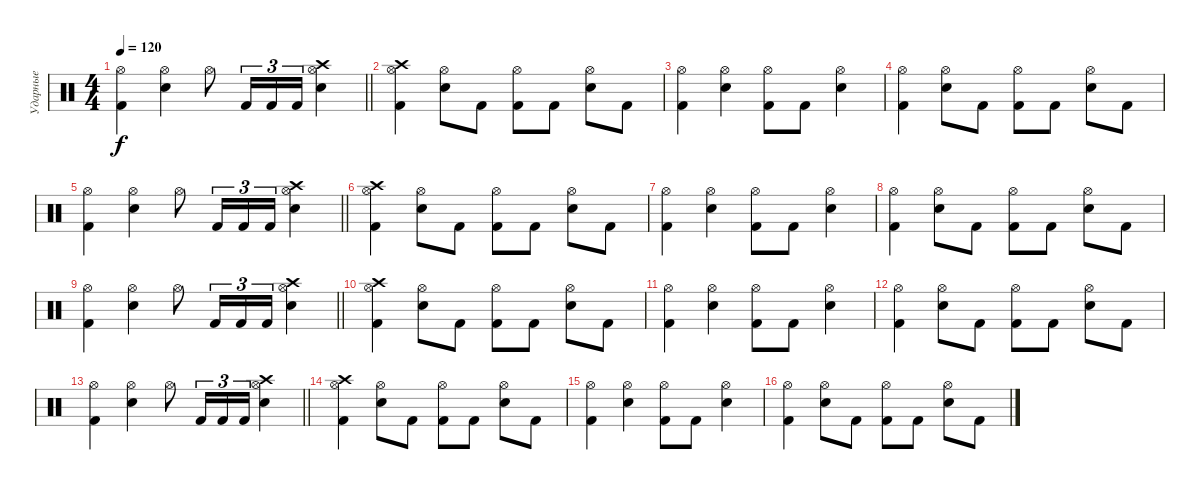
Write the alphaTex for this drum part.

\track ("Ударные" "Ударные") {instrument percussion}
\staff {score}
\articulation defaults
\ts (4 4)
\tempo 120
\clef neutral
\barLineRight lightlight
\ks c
("Kick (hit) 2" "Hi-Hat (open)").4{dy f} ("Snare (hit) 2" "Hi-Hat (open)").4 "Hi-Hat (open)".8 "Kick (hit) 2".16{tu (3 2)} "Kick (hit) 2".16{tu (3 2)} "Kick (hit) 2".16{tu (3 2)} ("Snare (hit) 2" "Hi-Hat (open)" "Crash high (hit)").4 |
("Kick (hit) 2" "Hi-Hat (open)" "Crash high (hit)").4 ("Snare (hit) 2" "Hi-Hat (open)").8 "Kick (hit) 2".8 ("Kick (hit) 2" "Hi-Hat (open)").8 "Kick (hit) 2".8 ("Snare (hit) 2" "Hi-Hat (open)").8 "Kick (hit) 2".8 |
("Kick (hit) 2" "Hi-Hat (open)").4 ("Snare (hit) 2" "Hi-Hat (open)").4 ("Kick (hit) 2" "Hi-Hat (open)").8 "Kick (hit) 2".8 ("Snare (hit) 2" "Hi-Hat (open)").4 |
("Kick (hit) 2" "Hi-Hat (open)").4 ("Snare (hit) 2" "Hi-Hat (open)").8 "Kick (hit) 2".8 ("Kick (hit) 2" "Hi-Hat (open)").8 "Kick (hit) 2".8 ("Snare (hit) 2" "Hi-Hat (open)").8 "Kick (hit) 2".8 |
\barLineRight lightlight
("Kick (hit) 2" "Hi-Hat (open)").4 ("Snare (hit) 2" "Hi-Hat (open)").4 "Hi-Hat (open)".8 "Kick (hit) 2".16{tu (3 2)} "Kick (hit) 2".16{tu (3 2)} "Kick (hit) 2".16{tu (3 2)} ("Snare (hit) 2" "Hi-Hat (open)" "Crash high (hit)").4 |
("Kick (hit) 2" "Hi-Hat (open)" "Crash high (hit)").4 ("Snare (hit) 2" "Hi-Hat (open)").8 "Kick (hit) 2".8 ("Kick (hit) 2" "Hi-Hat (open)").8 "Kick (hit) 2".8 ("Snare (hit) 2" "Hi-Hat (open)").8 "Kick (hit) 2".8 |
("Kick (hit) 2" "Hi-Hat (open)").4 ("Snare (hit) 2" "Hi-Hat (open)").4 ("Kick (hit) 2" "Hi-Hat (open)").8 "Kick (hit) 2".8 ("Snare (hit) 2" "Hi-Hat (open)").4 |
("Kick (hit) 2" "Hi-Hat (open)").4 ("Snare (hit) 2" "Hi-Hat (open)").8 "Kick (hit) 2".8 ("Kick (hit) 2" "Hi-Hat (open)").8 "Kick (hit) 2".8 ("Snare (hit) 2" "Hi-Hat (open)").8 "Kick (hit) 2".8 |
\barLineRight lightlight
("Kick (hit) 2" "Hi-Hat (open)").4 ("Snare (hit) 2" "Hi-Hat (open)").4 "Hi-Hat (open)".8 "Kick (hit) 2".16{tu (3 2)} "Kick (hit) 2".16{tu (3 2)} "Kick (hit) 2".16{tu (3 2)} ("Snare (hit) 2" "Hi-Hat (open)" "Crash high (hit)").4 |
("Kick (hit) 2" "Hi-Hat (open)" "Crash high (hit)").4 ("Snare (hit) 2" "Hi-Hat (open)").8 "Kick (hit) 2".8 ("Kick (hit) 2" "Hi-Hat (open)").8 "Kick (hit) 2".8 ("Snare (hit) 2" "Hi-Hat (open)").8 "Kick (hit) 2".8 |
("Kick (hit) 2" "Hi-Hat (open)").4 ("Snare (hit) 2" "Hi-Hat (open)").4 ("Kick (hit) 2" "Hi-Hat (open)").8 "Kick (hit) 2".8 ("Snare (hit) 2" "Hi-Hat (open)").4 |
("Kick (hit) 2" "Hi-Hat (open)").4 ("Snare (hit) 2" "Hi-Hat (open)").8 "Kick (hit) 2".8 ("Kick (hit) 2" "Hi-Hat (open)").8 "Kick (hit) 2".8 ("Snare (hit) 2" "Hi-Hat (open)").8 "Kick (hit) 2".8 |
\barLineRight lightlight
("Kick (hit) 2" "Hi-Hat (open)").4 ("Snare (hit) 2" "Hi-Hat (open)").4 "Hi-Hat (open)".8 "Kick (hit) 2".16{tu (3 2)} "Kick (hit) 2".16{tu (3 2)} "Kick (hit) 2".16{tu (3 2)} ("Snare (hit) 2" "Hi-Hat (open)" "Crash high (hit)").4 |
("Kick (hit) 2" "Hi-Hat (open)" "Crash high (hit)").4 ("Snare (hit) 2" "Hi-Hat (open)").8 "Kick (hit) 2".8 ("Kick (hit) 2" "Hi-Hat (open)").8 "Kick (hit) 2".8 ("Snare (hit) 2" "Hi-Hat (open)").8 "Kick (hit) 2".8 |
("Kick (hit) 2" "Hi-Hat (open)").4 ("Snare (hit) 2" "Hi-Hat (open)").4 ("Kick (hit) 2" "Hi-Hat (open)").8 "Kick (hit) 2".8 ("Snare (hit) 2" "Hi-Hat (open)").4 |
("Kick (hit) 2" "Hi-Hat (open)").4 ("Snare (hit) 2" "Hi-Hat (open)").8 "Kick (hit) 2".8 ("Kick (hit) 2" "Hi-Hat (open)").8 "Kick (hit) 2".8 ("Snare (hit) 2" "Hi-Hat (open)").8 "Kick (hit) 2".8
